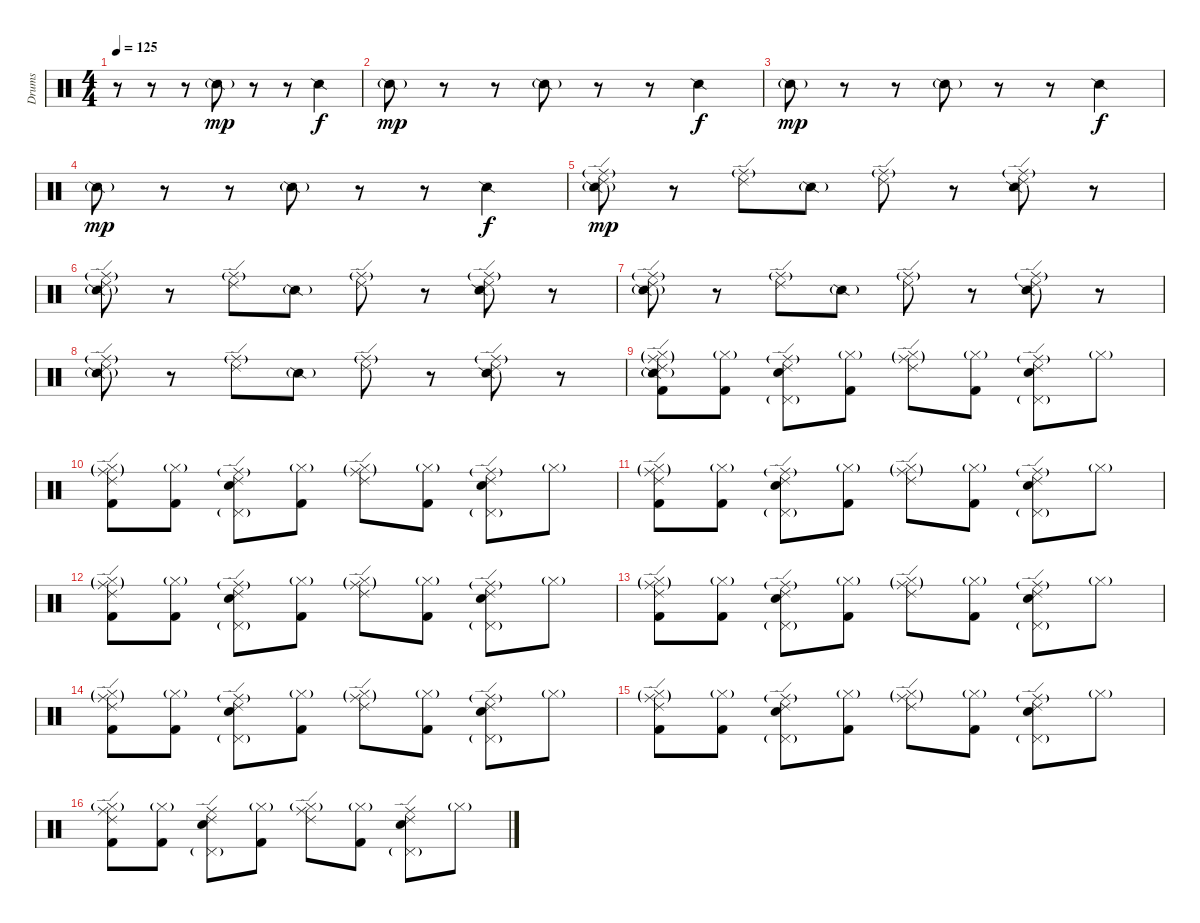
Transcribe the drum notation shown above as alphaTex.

\track ("Drums" "Drums") {instrument percussion}
\staff {score}
\articulation defaults
\ts (4 4)
\tempo 125
\clef neutral
\ks c
r.8{dy mp} r.8 r.8 "Snare (side stick) 2"{g}.8 r.8 r.8 "Snare (side stick) 2".4{dy f} |
"Snare (side stick) 2"{g}.8{dy mp} r.8 r.8 "Snare (side stick) 2"{g}.8 r.8 r.8 "Snare (side stick) 2".4{dy f} |
"Snare (side stick) 2"{g}.8{dy mp} r.8 r.8 "Snare (side stick) 2"{g}.8 r.8 r.8 "Snare (side stick) 2".4{dy f} |
"Snare (side stick) 2"{g}.8{dy mp} r.8 r.8 "Snare (side stick) 2"{g}.8 r.8 r.8 "Snare (side stick) 2".4{dy f} |
("Ride (middle)"{g} "Snare (side stick) 2"{g} "Ride (edge) 2").8{dy mp} r.8 ("Ride (middle)"{g} "Ride (edge) 2").8 "Snare (side stick) 2"{g}.8 ("Ride (middle)"{g} "Ride (edge) 2").8 r.8 ("Ride (middle)"{g} "Snare (side stick) 2" "Ride (edge) 2").8 r.8 |
("Ride (middle)"{g} "Snare (side stick) 2"{g} "Ride (edge) 2").8 r.8 ("Ride (middle)"{g} "Ride (edge) 2").8 "Snare (side stick) 2"{g}.8 ("Ride (middle)"{g} "Ride (edge) 2").8 r.8 ("Ride (middle)"{g} "Snare (side stick) 2" "Ride (edge) 2").8 r.8 |
("Ride (middle)"{g} "Snare (side stick) 2"{g} "Ride (edge) 2").8 r.8 ("Ride (middle)"{g} "Ride (edge) 2").8 "Snare (side stick) 2"{g}.8 ("Ride (middle)"{g} "Ride (edge) 2").8 r.8 ("Ride (middle)"{g} "Snare (side stick) 2" "Ride (edge) 2").8 r.8 |
("Ride (middle)"{g} "Snare (side stick) 2"{g} "Ride (edge) 2").8 r.8 ("Ride (middle)"{g} "Ride (edge) 2").8 "Snare (side stick) 2"{g}.8 ("Ride (middle)"{g} "Ride (edge) 2").8 r.8 ("Ride (middle)"{g} "Snare (side stick) 2" "Ride (edge) 2").8 r.8 |
("Ride (middle)"{g} "Hi-Hat (closed)"{g} "Snare (side stick) 2"{g} "Ride (edge) 2" "Kick (hit) 2").8 ("Hi-Hat (closed)"{g} "Kick (hit) 2").8 ("Ride (middle)"{g} "Electric Snare (hit)" "Pedal Hi-Hat (hit)"{g} "Ride (edge) 2").8 ("Hi-Hat (closed)"{g} "Kick (hit) 2").8 ("Ride (middle)"{g} "Hi-Hat (closed)"{g} "Ride (edge) 2").8 ("Hi-Hat (closed)"{g} "Kick (hit) 2").8 ("Ride (middle)"{g} "Electric Snare (hit)" "Pedal Hi-Hat (hit)"{g} "Ride (edge) 2").8 "Hi-Hat (closed)"{g}.8 |
("Ride (middle)"{g} "Hi-Hat (closed)"{g} "Ride (edge) 2" "Kick (hit) 2").8 ("Hi-Hat (closed)"{g} "Kick (hit) 2").8 ("Ride (middle)"{g} "Electric Snare (hit)" "Pedal Hi-Hat (hit)"{g} "Ride (edge) 2").8 ("Hi-Hat (closed)"{g} "Kick (hit) 2").8 ("Ride (middle)"{g} "Hi-Hat (closed)"{g} "Ride (edge) 2").8 ("Hi-Hat (closed)"{g} "Kick (hit) 2").8 ("Ride (middle)"{g} "Electric Snare (hit)" "Pedal Hi-Hat (hit)"{g} "Ride (edge) 2").8 "Hi-Hat (closed)"{g}.8 |
("Ride (middle)"{g} "Hi-Hat (closed)"{g} "Ride (edge) 2" "Kick (hit) 2").8 ("Hi-Hat (closed)"{g} "Kick (hit) 2").8 ("Ride (middle)"{g} "Electric Snare (hit)" "Pedal Hi-Hat (hit)"{g} "Ride (edge) 2").8 ("Hi-Hat (closed)"{g} "Kick (hit) 2").8 ("Ride (middle)"{g} "Hi-Hat (closed)"{g} "Ride (edge) 2").8 ("Hi-Hat (closed)"{g} "Kick (hit) 2").8 ("Ride (middle)"{g} "Electric Snare (hit)" "Pedal Hi-Hat (hit)"{g} "Ride (edge) 2").8 "Hi-Hat (closed)"{g}.8 |
("Ride (middle)"{g} "Hi-Hat (closed)"{g} "Ride (edge) 2" "Kick (hit) 2").8 ("Hi-Hat (closed)"{g} "Kick (hit) 2").8 ("Ride (middle)"{g} "Electric Snare (hit)" "Pedal Hi-Hat (hit)"{g} "Ride (edge) 2").8 ("Hi-Hat (closed)"{g} "Kick (hit) 2").8 ("Ride (middle)"{g} "Hi-Hat (closed)"{g} "Ride (edge) 2").8 ("Hi-Hat (closed)"{g} "Kick (hit) 2").8 ("Ride (middle)"{g} "Electric Snare (hit)" "Pedal Hi-Hat (hit)"{g} "Ride (edge) 2").8 "Hi-Hat (closed)"{g}.8 |
("Ride (middle)"{g} "Hi-Hat (closed)"{g} "Ride (edge) 2" "Kick (hit) 2").8 ("Hi-Hat (closed)"{g} "Kick (hit) 2").8 ("Ride (middle)"{g} "Electric Snare (hit)" "Pedal Hi-Hat (hit)"{g} "Ride (edge) 2").8 ("Hi-Hat (closed)"{g} "Kick (hit) 2").8 ("Ride (middle)"{g} "Hi-Hat (closed)"{g} "Ride (edge) 2").8 ("Hi-Hat (closed)"{g} "Kick (hit) 2").8 ("Ride (middle)"{g} "Electric Snare (hit)" "Pedal Hi-Hat (hit)"{g} "Ride (edge) 2").8 "Hi-Hat (closed)"{g}.8 |
("Ride (middle)"{g} "Hi-Hat (closed)"{g} "Ride (edge) 2" "Kick (hit) 2").8 ("Hi-Hat (closed)"{g} "Kick (hit) 2").8 ("Ride (middle)"{g} "Electric Snare (hit)" "Pedal Hi-Hat (hit)"{g} "Ride (edge) 2").8 ("Hi-Hat (closed)"{g} "Kick (hit) 2").8 ("Ride (middle)"{g} "Hi-Hat (closed)"{g} "Ride (edge) 2").8 ("Hi-Hat (closed)"{g} "Kick (hit) 2").8 ("Ride (middle)"{g} "Electric Snare (hit)" "Pedal Hi-Hat (hit)"{g} "Ride (edge) 2").8 "Hi-Hat (closed)"{g}.8 |
("Ride (middle)"{g} "Hi-Hat (closed)"{g} "Ride (edge) 2" "Kick (hit) 2").8 ("Hi-Hat (closed)"{g} "Kick (hit) 2").8 ("Ride (middle)"{g} "Electric Snare (hit)" "Pedal Hi-Hat (hit)"{g} "Ride (edge) 2").8 ("Hi-Hat (closed)"{g} "Kick (hit) 2").8 ("Ride (middle)"{g} "Hi-Hat (closed)"{g} "Ride (edge) 2").8 ("Hi-Hat (closed)"{g} "Kick (hit) 2").8 ("Ride (middle)"{g} "Electric Snare (hit)" "Pedal Hi-Hat (hit)"{g} "Ride (edge) 2").8 "Hi-Hat (closed)"{g}.8 |
("Ride (middle)" "Hi-Hat (closed)"{g} "Ride (edge) 2" "Kick (hit) 2").8 ("Hi-Hat (closed)"{g} "Kick (hit) 2").8 ("Ride (middle)" "Electric Snare (hit)" "Pedal Hi-Hat (hit)"{g} "Ride (edge) 2").8 ("Hi-Hat (closed)"{g} "Kick (hit) 2").8 ("Ride (middle)" "Hi-Hat (closed)"{g} "Ride (edge) 2").8 ("Hi-Hat (closed)"{g} "Kick (hit) 2").8 ("Ride (middle)" "Electric Snare (hit)" "Pedal Hi-Hat (hit)"{g} "Ride (edge) 2").8 "Hi-Hat (closed)"{g}.8
